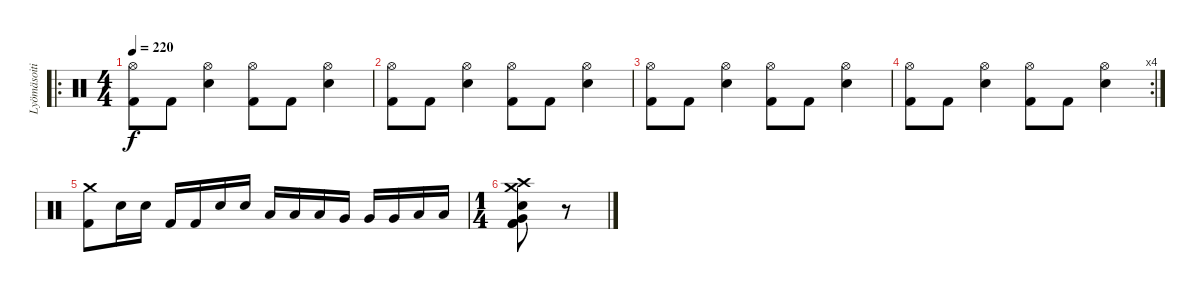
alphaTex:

\track ("Lyömäsoitin" "Lyömäsoiti") {instrument percussion}
\staff {score}
\articulation defaults
\ro
\ts (4 4)
\tempo 220
\clef neutral
\ks c
("Hi-Hat (open)" "Kick (hit) 2").8{dy f} "Kick (hit) 2".8 ("Hi-Hat (open)" "Snare (hit) 2").4 ("Hi-Hat (open)" "Kick (hit) 2").8 "Kick (hit) 2".8 ("Hi-Hat (open)" "Snare (hit) 2").4 |
("Hi-Hat (open)" "Kick (hit) 2").8 "Kick (hit) 2".8 ("Hi-Hat (open)" "Snare (hit) 2").4 ("Hi-Hat (open)" "Kick (hit) 2").8 "Kick (hit) 2".8 ("Hi-Hat (open)" "Snare (hit) 2").4 |
("Hi-Hat (open)" "Kick (hit) 2").8 "Kick (hit) 2".8 ("Hi-Hat (open)" "Snare (hit) 2").4 ("Hi-Hat (open)" "Kick (hit) 2").8 "Kick (hit) 2".8 ("Hi-Hat (open)" "Snare (hit) 2").4 |
\rc 4
("Hi-Hat (open)" "Kick (hit) 2").8 "Kick (hit) 2".8 ("Hi-Hat (open)" "Snare (hit) 2").4 ("Hi-Hat (open)" "Kick (hit) 2").8 "Kick (hit) 2".8 ("Hi-Hat (open)" "Snare (hit) 2").4 |
("Crash medium (hit)" "Kick (hit) 2").8 "Snare (hit) 2".16 "Snare (hit) 2".16 "Kick (hit) 2".16 "Kick (hit) 2".16 "Snare (hit) 2".16 "Snare (hit) 2".16 "Low Tom (hit)".16 "Low Tom (hit)".16 "Low Tom (hit)".16 "Very Low Tom (hit)".16 "Very Low Tom (hit)".16 "Very Low Tom (hit)".16 "Low Floor Tom (hit)".16 "Low Floor Tom (hit)".16 |
\ts (1 4)
("Crash high (hit)" "Crash medium (hit)" "Kick (hit) 2" "Snare (hit) 2" "Kick (hit) 2" "Very Low Tom (hit)").8 r.8
